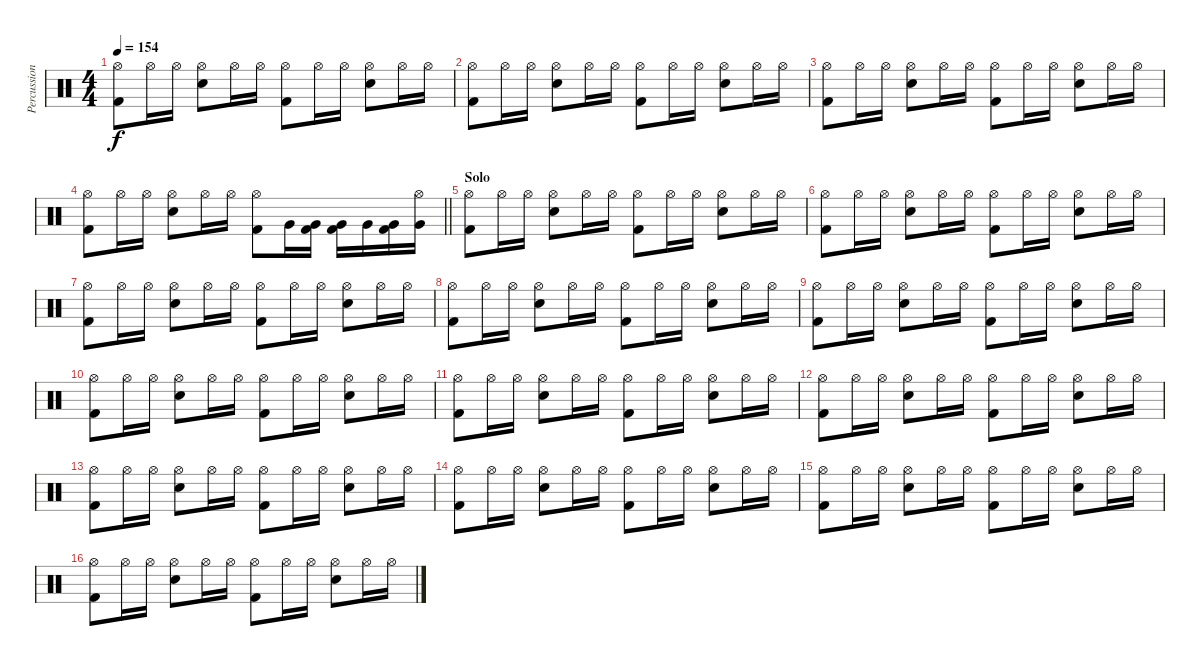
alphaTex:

\track ("Percussion" "Percussion") {instrument percussion}
\staff {score}
\articulation defaults
\ts (4 4)
\tempo 154
\clef neutral
\ks c
("Hi-Hat (open)" "Kick (hit) 2").8{dy f} "Hi-Hat (open)".16 "Hi-Hat (open)".16 ("Hi-Hat (open)" "Snare (hit) 2").8 "Hi-Hat (open)".16 "Hi-Hat (open)".16 ("Hi-Hat (open)" "Kick (hit) 2").8 "Hi-Hat (open)".16 "Hi-Hat (open)".16 ("Hi-Hat (open)" "Snare (hit) 2").8 "Hi-Hat (open)".16 "Hi-Hat (open)".16 |
("Hi-Hat (open)" "Kick (hit) 2").8 "Hi-Hat (open)".16 "Hi-Hat (open)".16 ("Hi-Hat (open)" "Snare (hit) 2").8 "Hi-Hat (open)".16 "Hi-Hat (open)".16 ("Hi-Hat (open)" "Kick (hit) 2").8 "Hi-Hat (open)".16 "Hi-Hat (open)".16 ("Hi-Hat (open)" "Snare (hit) 2").8 "Hi-Hat (open)".16 "Hi-Hat (open)".16 |
("Hi-Hat (open)" "Kick (hit) 2").8 "Hi-Hat (open)".16 "Hi-Hat (open)".16 ("Hi-Hat (open)" "Snare (hit) 2").8 "Hi-Hat (open)".16 "Hi-Hat (open)".16 ("Hi-Hat (open)" "Kick (hit) 2").8 "Hi-Hat (open)".16 "Hi-Hat (open)".16 ("Hi-Hat (open)" "Snare (hit) 2").8 "Hi-Hat (open)".16 "Hi-Hat (open)".16 |
\barLineRight lightlight
("Hi-Hat (open)" "Kick (hit) 2").8 "Hi-Hat (open)".16 "Hi-Hat (open)".16 ("Hi-Hat (open)" "Snare (hit) 2").8 "Hi-Hat (open)".16 "Hi-Hat (open)".16 ("Hi-Hat (open)" "Kick (hit) 2").8 "Very Low Tom (hit)".16 ("Kick (hit) 2" "Very Low Tom (hit)").16 ("Kick (hit) 2" "Very Low Tom (hit)").16 "Very Low Tom (hit)".16 ("Kick (hit) 2" "Very Low Tom (hit)").16 ("Hi-Hat (open)" "Very Low Tom (hit)").16 |
\section ("" "Solo")
("Hi-Hat (open)" "Kick (hit) 2").8 "Hi-Hat (open)".16 "Hi-Hat (open)".16 ("Hi-Hat (open)" "Snare (hit) 2").8 "Hi-Hat (open)".16 "Hi-Hat (open)".16 ("Hi-Hat (open)" "Kick (hit) 2").8 "Hi-Hat (open)".16 "Hi-Hat (open)".16 ("Hi-Hat (open)" "Snare (hit) 2").8 "Hi-Hat (open)".16 "Hi-Hat (open)".16 |
("Hi-Hat (open)" "Kick (hit) 2").8 "Hi-Hat (open)".16 "Hi-Hat (open)".16 ("Hi-Hat (open)" "Snare (hit) 2").8 "Hi-Hat (open)".16 "Hi-Hat (open)".16 ("Hi-Hat (open)" "Kick (hit) 2").8 "Hi-Hat (open)".16 "Hi-Hat (open)".16 ("Hi-Hat (open)" "Snare (hit) 2").8 "Hi-Hat (open)".16 "Hi-Hat (open)".16 |
("Hi-Hat (open)" "Kick (hit) 2").8 "Hi-Hat (open)".16 "Hi-Hat (open)".16 ("Hi-Hat (open)" "Snare (hit) 2").8 "Hi-Hat (open)".16 "Hi-Hat (open)".16 ("Hi-Hat (open)" "Kick (hit) 2").8 "Hi-Hat (open)".16 "Hi-Hat (open)".16 ("Hi-Hat (open)" "Snare (hit) 2").8 "Hi-Hat (open)".16 "Hi-Hat (open)".16 |
("Hi-Hat (open)" "Kick (hit) 2").8 "Hi-Hat (open)".16 "Hi-Hat (open)".16 ("Hi-Hat (open)" "Snare (hit) 2").8 "Hi-Hat (open)".16 "Hi-Hat (open)".16 ("Hi-Hat (open)" "Kick (hit) 2").8 "Hi-Hat (open)".16 "Hi-Hat (open)".16 ("Hi-Hat (open)" "Snare (hit) 2").8 "Hi-Hat (open)".16 "Hi-Hat (open)".16 |
("Hi-Hat (open)" "Kick (hit) 2").8 "Hi-Hat (open)".16 "Hi-Hat (open)".16 ("Hi-Hat (open)" "Snare (hit) 2").8 "Hi-Hat (open)".16 "Hi-Hat (open)".16 ("Hi-Hat (open)" "Kick (hit) 2").8 "Hi-Hat (open)".16 "Hi-Hat (open)".16 ("Hi-Hat (open)" "Snare (hit) 2").8 "Hi-Hat (open)".16 "Hi-Hat (open)".16 |
("Hi-Hat (open)" "Kick (hit) 2").8 "Hi-Hat (open)".16 "Hi-Hat (open)".16 ("Hi-Hat (open)" "Snare (hit) 2").8 "Hi-Hat (open)".16 "Hi-Hat (open)".16 ("Hi-Hat (open)" "Kick (hit) 2").8 "Hi-Hat (open)".16 "Hi-Hat (open)".16 ("Hi-Hat (open)" "Snare (hit) 2").8 "Hi-Hat (open)".16 "Hi-Hat (open)".16 |
("Hi-Hat (open)" "Kick (hit) 2").8 "Hi-Hat (open)".16 "Hi-Hat (open)".16 ("Hi-Hat (open)" "Snare (hit) 2").8 "Hi-Hat (open)".16 "Hi-Hat (open)".16 ("Hi-Hat (open)" "Kick (hit) 2").8 "Hi-Hat (open)".16 "Hi-Hat (open)".16 ("Hi-Hat (open)" "Snare (hit) 2").8 "Hi-Hat (open)".16 "Hi-Hat (open)".16 |
("Hi-Hat (open)" "Kick (hit) 2").8 "Hi-Hat (open)".16 "Hi-Hat (open)".16 ("Hi-Hat (open)" "Snare (hit) 2").8 "Hi-Hat (open)".16 "Hi-Hat (open)".16 ("Hi-Hat (open)" "Kick (hit) 2").8 "Hi-Hat (open)".16 "Hi-Hat (open)".16 ("Hi-Hat (open)" "Snare (hit) 2").8 "Hi-Hat (open)".16 "Hi-Hat (open)".16 |
("Hi-Hat (open)" "Kick (hit) 2").8 "Hi-Hat (open)".16 "Hi-Hat (open)".16 ("Hi-Hat (open)" "Snare (hit) 2").8 "Hi-Hat (open)".16 "Hi-Hat (open)".16 ("Hi-Hat (open)" "Kick (hit) 2").8 "Hi-Hat (open)".16 "Hi-Hat (open)".16 ("Hi-Hat (open)" "Snare (hit) 2").8 "Hi-Hat (open)".16 "Hi-Hat (open)".16 |
("Hi-Hat (open)" "Kick (hit) 2").8 "Hi-Hat (open)".16 "Hi-Hat (open)".16 ("Hi-Hat (open)" "Snare (hit) 2").8 "Hi-Hat (open)".16 "Hi-Hat (open)".16 ("Hi-Hat (open)" "Kick (hit) 2").8 "Hi-Hat (open)".16 "Hi-Hat (open)".16 ("Hi-Hat (open)" "Snare (hit) 2").8 "Hi-Hat (open)".16 "Hi-Hat (open)".16 |
("Hi-Hat (open)" "Kick (hit) 2").8 "Hi-Hat (open)".16 "Hi-Hat (open)".16 ("Hi-Hat (open)" "Snare (hit) 2").8 "Hi-Hat (open)".16 "Hi-Hat (open)".16 ("Hi-Hat (open)" "Kick (hit) 2").8 "Hi-Hat (open)".16 "Hi-Hat (open)".16 ("Hi-Hat (open)" "Snare (hit) 2").8 "Hi-Hat (open)".16 "Hi-Hat (open)".16 |
("Hi-Hat (open)" "Kick (hit) 2").8 "Hi-Hat (open)".16 "Hi-Hat (open)".16 ("Hi-Hat (open)" "Snare (hit) 2").8 "Hi-Hat (open)".16 "Hi-Hat (open)".16 ("Hi-Hat (open)" "Kick (hit) 2").8 "Hi-Hat (open)".16 "Hi-Hat (open)".16 ("Hi-Hat (open)" "Snare (hit) 2").8 "Hi-Hat (open)".16 "Hi-Hat (open)".16
